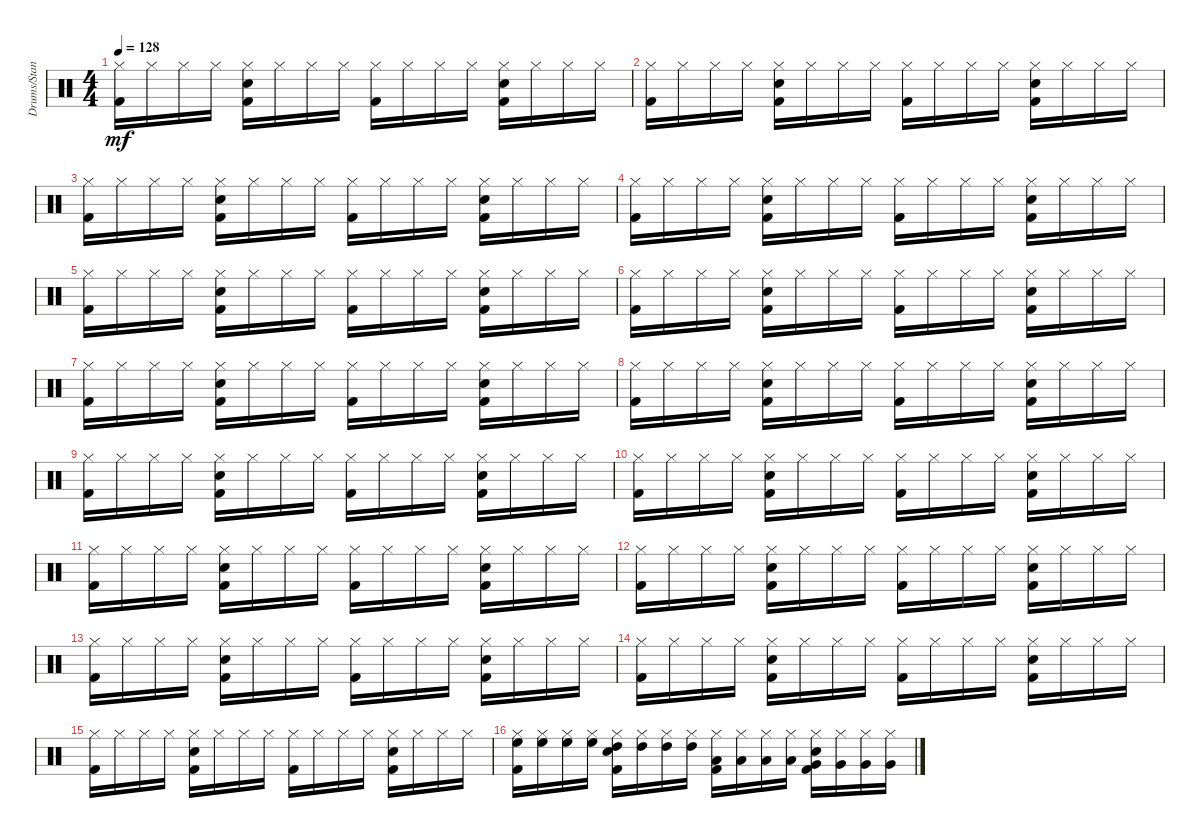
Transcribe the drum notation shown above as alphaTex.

\track ("Drums/Standard" "Drums/Stan") {instrument percussion}
\staff {score}
\articulation defaults
\ts (4 4)
\tempo 128
\clef neutral
\ks c
("Hi-Hat (closed)" "Kick (hit) 2").16{dy mf} "Hi-Hat (closed)".16 "Hi-Hat (closed)".16 "Hi-Hat (closed)".16 ("Hi-Hat (closed)" "Kick (hit) 2" "Snare (hit) 2").16 "Hi-Hat (closed)".16 "Hi-Hat (closed)".16 "Hi-Hat (closed)".16 ("Hi-Hat (closed)" "Kick (hit) 2").16 "Hi-Hat (closed)".16 "Hi-Hat (closed)".16 "Hi-Hat (closed)".16 ("Snare (hit) 2" "Hi-Hat (closed)" "Kick (hit) 2").16 "Hi-Hat (closed)".16 "Hi-Hat (closed)".16 "Hi-Hat (closed)".16 |
("Kick (hit) 2" "Hi-Hat (closed)").16 "Hi-Hat (closed)".16 "Hi-Hat (closed)".16 "Hi-Hat (closed)".16 ("Snare (hit) 2" "Kick (hit) 2" "Hi-Hat (closed)").16 "Hi-Hat (closed)".16 "Hi-Hat (closed)".16 "Hi-Hat (closed)".16 ("Hi-Hat (closed)" "Kick (hit) 2").16 "Hi-Hat (closed)".16 "Hi-Hat (closed)".16 "Hi-Hat (closed)".16 ("Hi-Hat (closed)" "Snare (hit) 2" "Kick (hit) 2").16 "Hi-Hat (closed)".16 "Hi-Hat (closed)".16 "Hi-Hat (closed)".16 |
("Kick (hit) 2" "Hi-Hat (closed)").16 "Hi-Hat (closed)".16 "Hi-Hat (closed)".16 "Hi-Hat (closed)".16 ("Snare (hit) 2" "Kick (hit) 2" "Hi-Hat (closed)").16 "Hi-Hat (closed)".16 "Hi-Hat (closed)".16 "Hi-Hat (closed)".16 ("Kick (hit) 2" "Hi-Hat (closed)").16 "Hi-Hat (closed)".16 "Hi-Hat (closed)".16 "Hi-Hat (closed)".16 ("Kick (hit) 2" "Hi-Hat (closed)" "Snare (hit) 2").16 "Hi-Hat (closed)".16 "Hi-Hat (closed)".16 "Hi-Hat (closed)".16 |
("Hi-Hat (closed)" "Kick (hit) 2").16 "Hi-Hat (closed)".16 "Hi-Hat (closed)".16 "Hi-Hat (closed)".16 ("Hi-Hat (closed)" "Kick (hit) 2" "Snare (hit) 2").16 "Hi-Hat (closed)".16 "Hi-Hat (closed)".16 "Hi-Hat (closed)".16 ("Kick (hit) 2" "Hi-Hat (closed)").16 "Hi-Hat (closed)".16 "Hi-Hat (closed)".16 "Hi-Hat (closed)".16 ("Kick (hit) 2" "Snare (hit) 2" "Hi-Hat (closed)").16 "Hi-Hat (closed)".16 "Hi-Hat (closed)".16 "Hi-Hat (closed)".16 |
("Hi-Hat (closed)" "Kick (hit) 2").16 "Hi-Hat (closed)".16 "Hi-Hat (closed)".16 "Hi-Hat (closed)".16 ("Hi-Hat (closed)" "Kick (hit) 2" "Snare (hit) 2").16 "Hi-Hat (closed)".16 "Hi-Hat (closed)".16 "Hi-Hat (closed)".16 ("Hi-Hat (closed)" "Kick (hit) 2").16 "Hi-Hat (closed)".16 "Hi-Hat (closed)".16 "Hi-Hat (closed)".16 ("Snare (hit) 2" "Hi-Hat (closed)" "Kick (hit) 2").16 "Hi-Hat (closed)".16 "Hi-Hat (closed)".16 "Hi-Hat (closed)".16 |
("Kick (hit) 2" "Hi-Hat (closed)").16 "Hi-Hat (closed)".16 "Hi-Hat (closed)".16 "Hi-Hat (closed)".16 ("Snare (hit) 2" "Kick (hit) 2" "Hi-Hat (closed)").16 "Hi-Hat (closed)".16 "Hi-Hat (closed)".16 "Hi-Hat (closed)".16 ("Hi-Hat (closed)" "Kick (hit) 2").16 "Hi-Hat (closed)".16 "Hi-Hat (closed)".16 "Hi-Hat (closed)".16 ("Hi-Hat (closed)" "Snare (hit) 2" "Kick (hit) 2").16 "Hi-Hat (closed)".16 "Hi-Hat (closed)".16 "Hi-Hat (closed)".16 |
("Kick (hit) 2" "Hi-Hat (closed)").16 "Hi-Hat (closed)".16 "Hi-Hat (closed)".16 "Hi-Hat (closed)".16 ("Snare (hit) 2" "Kick (hit) 2" "Hi-Hat (closed)").16 "Hi-Hat (closed)".16 "Hi-Hat (closed)".16 "Hi-Hat (closed)".16 ("Kick (hit) 2" "Hi-Hat (closed)").16 "Hi-Hat (closed)".16 "Hi-Hat (closed)".16 "Hi-Hat (closed)".16 ("Kick (hit) 2" "Hi-Hat (closed)" "Snare (hit) 2").16 "Hi-Hat (closed)".16 "Hi-Hat (closed)".16 "Hi-Hat (closed)".16 |
("Hi-Hat (closed)" "Kick (hit) 2").16 "Hi-Hat (closed)".16 "Hi-Hat (closed)".16 "Hi-Hat (closed)".16 ("Hi-Hat (closed)" "Kick (hit) 2" "Snare (hit) 2").16 "Hi-Hat (closed)".16 "Hi-Hat (closed)".16 "Hi-Hat (closed)".16 ("Kick (hit) 2" "Hi-Hat (closed)").16 "Hi-Hat (closed)".16 "Hi-Hat (closed)".16 "Hi-Hat (closed)".16 ("Kick (hit) 2" "Snare (hit) 2" "Hi-Hat (closed)").16 "Hi-Hat (closed)".16 "Hi-Hat (closed)".16 "Hi-Hat (closed)".16 |
("Hi-Hat (closed)" "Kick (hit) 2").16 "Hi-Hat (closed)".16 "Hi-Hat (closed)".16 "Hi-Hat (closed)".16 ("Hi-Hat (closed)" "Kick (hit) 2" "Snare (hit) 2").16 "Hi-Hat (closed)".16 "Hi-Hat (closed)".16 "Hi-Hat (closed)".16 ("Hi-Hat (closed)" "Kick (hit) 2").16 "Hi-Hat (closed)".16 "Hi-Hat (closed)".16 "Hi-Hat (closed)".16 ("Snare (hit) 2" "Hi-Hat (closed)" "Kick (hit) 2").16 "Hi-Hat (closed)".16 "Hi-Hat (closed)".16 "Hi-Hat (closed)".16 |
("Kick (hit) 2" "Hi-Hat (closed)").16 "Hi-Hat (closed)".16 "Hi-Hat (closed)".16 "Hi-Hat (closed)".16 ("Snare (hit) 2" "Kick (hit) 2" "Hi-Hat (closed)").16 "Hi-Hat (closed)".16 "Hi-Hat (closed)".16 "Hi-Hat (closed)".16 ("Hi-Hat (closed)" "Kick (hit) 2").16 "Hi-Hat (closed)".16 "Hi-Hat (closed)".16 "Hi-Hat (closed)".16 ("Hi-Hat (closed)" "Snare (hit) 2" "Kick (hit) 2").16 "Hi-Hat (closed)".16 "Hi-Hat (closed)".16 "Hi-Hat (closed)".16 |
("Kick (hit) 2" "Hi-Hat (closed)").16 "Hi-Hat (closed)".16 "Hi-Hat (closed)".16 "Hi-Hat (closed)".16 ("Snare (hit) 2" "Kick (hit) 2" "Hi-Hat (closed)").16 "Hi-Hat (closed)".16 "Hi-Hat (closed)".16 "Hi-Hat (closed)".16 ("Kick (hit) 2" "Hi-Hat (closed)").16 "Hi-Hat (closed)".16 "Hi-Hat (closed)".16 "Hi-Hat (closed)".16 ("Kick (hit) 2" "Hi-Hat (closed)" "Snare (hit) 2").16 "Hi-Hat (closed)".16 "Hi-Hat (closed)".16 "Hi-Hat (closed)".16 |
("Hi-Hat (closed)" "Kick (hit) 2").16 "Hi-Hat (closed)".16 "Hi-Hat (closed)".16 "Hi-Hat (closed)".16 ("Hi-Hat (closed)" "Kick (hit) 2" "Snare (hit) 2").16 "Hi-Hat (closed)".16 "Hi-Hat (closed)".16 "Hi-Hat (closed)".16 ("Kick (hit) 2" "Hi-Hat (closed)").16 "Hi-Hat (closed)".16 "Hi-Hat (closed)".16 "Hi-Hat (closed)".16 ("Kick (hit) 2" "Snare (hit) 2" "Hi-Hat (closed)").16 "Hi-Hat (closed)".16 "Hi-Hat (closed)".16 "Hi-Hat (closed)".16 |
("Hi-Hat (closed)" "Kick (hit) 2").16 "Hi-Hat (closed)".16 "Hi-Hat (closed)".16 "Hi-Hat (closed)".16 ("Hi-Hat (closed)" "Kick (hit) 2" "Snare (hit) 2").16 "Hi-Hat (closed)".16 "Hi-Hat (closed)".16 "Hi-Hat (closed)".16 ("Hi-Hat (closed)" "Kick (hit) 2").16 "Hi-Hat (closed)".16 "Hi-Hat (closed)".16 "Hi-Hat (closed)".16 ("Snare (hit) 2" "Hi-Hat (closed)" "Kick (hit) 2").16 "Hi-Hat (closed)".16 "Hi-Hat (closed)".16 "Hi-Hat (closed)".16 |
("Kick (hit) 2" "Hi-Hat (closed)").16 "Hi-Hat (closed)".16 "Hi-Hat (closed)".16 "Hi-Hat (closed)".16 ("Snare (hit) 2" "Kick (hit) 2" "Hi-Hat (closed)").16 "Hi-Hat (closed)".16 "Hi-Hat (closed)".16 "Hi-Hat (closed)".16 ("Hi-Hat (closed)" "Kick (hit) 2").16 "Hi-Hat (closed)".16 "Hi-Hat (closed)".16 "Hi-Hat (closed)".16 ("Hi-Hat (closed)" "Snare (hit) 2" "Kick (hit) 2").16 "Hi-Hat (closed)".16 "Hi-Hat (closed)".16 "Hi-Hat (closed)".16 |
("Kick (hit) 2" "Hi-Hat (closed)").16 "Hi-Hat (closed)".16 "Hi-Hat (closed)".16 "Hi-Hat (closed)".16 ("Snare (hit) 2" "Kick (hit) 2" "Hi-Hat (closed)").16 "Hi-Hat (closed)".16 "Hi-Hat (closed)".16 "Hi-Hat (closed)".16 ("Kick (hit) 2" "Hi-Hat (closed)").16 "Hi-Hat (closed)".16 "Hi-Hat (closed)".16 "Hi-Hat (closed)".16 ("Kick (hit) 2" "Hi-Hat (closed)" "Snare (hit) 2").16 "Hi-Hat (closed)".16 "Hi-Hat (closed)".16 "Hi-Hat (closed)".16 |
("Kick (hit) 2" "Hi-Hat (closed)" "High Floor Tom (hit)").16 ("Hi-Hat (closed)" "High Floor Tom (hit)").16 ("Hi-Hat (closed)" "High Floor Tom (hit)").16 ("Hi-Hat (closed)" "High Floor Tom (hit)").16 ("Snare (hit) 2" "Kick (hit) 2" "Hi-Hat (closed)" "High Tom (hit)").16 ("Hi-Hat (closed)" "High Tom (hit)").16 ("Hi-Hat (closed)" "High Tom (hit)").16 ("Hi-Hat (closed)" "High Tom (hit)").16 ("Hi-Hat (closed)" "Kick (hit) 2" "Low Tom (hit)").16 ("Hi-Hat (closed)" "Low Tom (hit)").16 ("Hi-Hat (closed)" "Low Tom (hit)").16 ("Hi-Hat (closed)" "Low Tom (hit)").16 ("Hi-Hat (closed)" "Snare (hit) 2" "Kick (hit) 2" "Very Low Tom (hit)").16 ("Hi-Hat (closed)" "Very Low Tom (hit)").16 ("Hi-Hat (closed)" "Very Low Tom (hit)").16 ("Hi-Hat (closed)" "Very Low Tom (hit)").16
